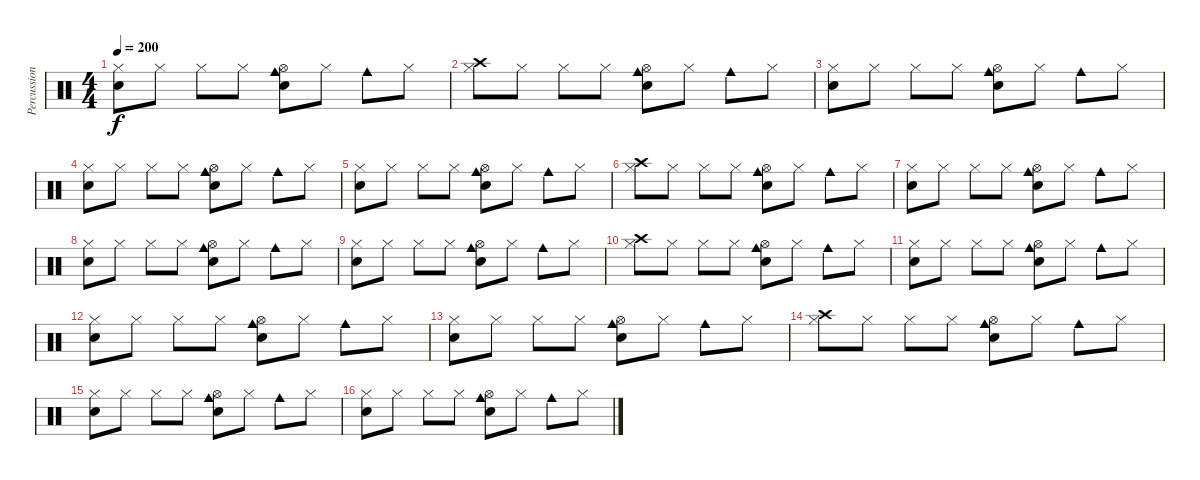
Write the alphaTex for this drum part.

\track ("Percussion" "Percussion") {instrument percussion}
\staff {score}
\articulation defaults
\ts (4 4)
\tempo 200
\clef neutral
\ks c
("Hi-Hat (closed)" "Electric Snare (hit)").8{dy f} "Hi-Hat (closed)".8 "Hi-Hat (closed)".8 "Hi-Hat (closed)".8 ("Cowbell medium (hit)" "Snare (hit) 2" "Hi-Hat (open)").8 "Hi-Hat (closed)".8 "Cowbell medium (hit)".8 "Hi-Hat (closed)".8 |
("Hi-Hat (closed)" "Crash high (hit)").8 "Hi-Hat (closed)".8 "Hi-Hat (closed)".8 "Hi-Hat (closed)".8 ("Cowbell medium (hit)" "Snare (hit) 2" "Hi-Hat (open)").8 "Hi-Hat (closed)".8 "Cowbell medium (hit)".8 "Hi-Hat (closed)".8 |
("Hi-Hat (closed)" "Electric Snare (hit)").8 "Hi-Hat (closed)".8 "Hi-Hat (closed)".8 "Hi-Hat (closed)".8 ("Cowbell medium (hit)" "Snare (hit) 2" "Hi-Hat (open)").8 "Hi-Hat (closed)".8 "Cowbell medium (hit)".8 "Hi-Hat (closed)".8 |
("Hi-Hat (closed)" "Electric Snare (hit)").8 "Hi-Hat (closed)".8 "Hi-Hat (closed)".8 "Hi-Hat (closed)".8 ("Cowbell medium (hit)" "Snare (hit) 2" "Hi-Hat (open)").8 "Hi-Hat (closed)".8 "Cowbell medium (hit)".8 "Hi-Hat (closed)".8 |
("Hi-Hat (closed)" "Electric Snare (hit)").8 "Hi-Hat (closed)".8 "Hi-Hat (closed)".8 "Hi-Hat (closed)".8 ("Cowbell medium (hit)" "Snare (hit) 2" "Hi-Hat (open)").8 "Hi-Hat (closed)".8 "Cowbell medium (hit)".8 "Hi-Hat (closed)".8 |
("Hi-Hat (closed)" "Crash high (hit)").8 "Hi-Hat (closed)".8 "Hi-Hat (closed)".8 "Hi-Hat (closed)".8 ("Cowbell medium (hit)" "Snare (hit) 2" "Hi-Hat (open)").8 "Hi-Hat (closed)".8 "Cowbell medium (hit)".8 "Hi-Hat (closed)".8 |
("Hi-Hat (closed)" "Electric Snare (hit)").8 "Hi-Hat (closed)".8 "Hi-Hat (closed)".8 "Hi-Hat (closed)".8 ("Cowbell medium (hit)" "Snare (hit) 2" "Hi-Hat (open)").8 "Hi-Hat (closed)".8 "Cowbell medium (hit)".8 "Hi-Hat (closed)".8 |
("Hi-Hat (closed)" "Electric Snare (hit)").8 "Hi-Hat (closed)".8 "Hi-Hat (closed)".8 "Hi-Hat (closed)".8 ("Cowbell medium (hit)" "Snare (hit) 2" "Hi-Hat (open)").8 "Hi-Hat (closed)".8 "Cowbell medium (hit)".8 "Hi-Hat (closed)".8 |
("Hi-Hat (closed)" "Electric Snare (hit)").8 "Hi-Hat (closed)".8 "Hi-Hat (closed)".8 "Hi-Hat (closed)".8 ("Cowbell medium (hit)" "Snare (hit) 2" "Hi-Hat (open)").8 "Hi-Hat (closed)".8 "Cowbell medium (hit)".8 "Hi-Hat (closed)".8 |
("Hi-Hat (closed)" "Crash high (hit)").8 "Hi-Hat (closed)".8 "Hi-Hat (closed)".8 "Hi-Hat (closed)".8 ("Cowbell medium (hit)" "Snare (hit) 2" "Hi-Hat (open)").8 "Hi-Hat (closed)".8 "Cowbell medium (hit)".8 "Hi-Hat (closed)".8 |
("Hi-Hat (closed)" "Electric Snare (hit)").8 "Hi-Hat (closed)".8 "Hi-Hat (closed)".8 "Hi-Hat (closed)".8 ("Cowbell medium (hit)" "Snare (hit) 2" "Hi-Hat (open)").8 "Hi-Hat (closed)".8 "Cowbell medium (hit)".8 "Hi-Hat (closed)".8 |
("Hi-Hat (closed)" "Electric Snare (hit)").8 "Hi-Hat (closed)".8 "Hi-Hat (closed)".8 "Hi-Hat (closed)".8 ("Cowbell medium (hit)" "Snare (hit) 2" "Hi-Hat (open)").8 "Hi-Hat (closed)".8 "Cowbell medium (hit)".8 "Hi-Hat (closed)".8 |
("Hi-Hat (closed)" "Electric Snare (hit)").8 "Hi-Hat (closed)".8 "Hi-Hat (closed)".8 "Hi-Hat (closed)".8 ("Cowbell medium (hit)" "Snare (hit) 2" "Hi-Hat (open)").8 "Hi-Hat (closed)".8 "Cowbell medium (hit)".8 "Hi-Hat (closed)".8 |
("Hi-Hat (closed)" "Crash high (hit)").8 "Hi-Hat (closed)".8 "Hi-Hat (closed)".8 "Hi-Hat (closed)".8 ("Cowbell medium (hit)" "Snare (hit) 2" "Hi-Hat (open)").8 "Hi-Hat (closed)".8 "Cowbell medium (hit)".8 "Hi-Hat (closed)".8 |
("Hi-Hat (closed)" "Electric Snare (hit)").8 "Hi-Hat (closed)".8 "Hi-Hat (closed)".8 "Hi-Hat (closed)".8 ("Cowbell medium (hit)" "Snare (hit) 2" "Hi-Hat (open)").8 "Hi-Hat (closed)".8 "Cowbell medium (hit)".8 "Hi-Hat (closed)".8 |
("Hi-Hat (closed)" "Electric Snare (hit)").8 "Hi-Hat (closed)".8 "Hi-Hat (closed)".8 "Hi-Hat (closed)".8 ("Cowbell medium (hit)" "Snare (hit) 2" "Hi-Hat (open)").8 "Hi-Hat (closed)".8 "Cowbell medium (hit)".8 "Hi-Hat (closed)".8
